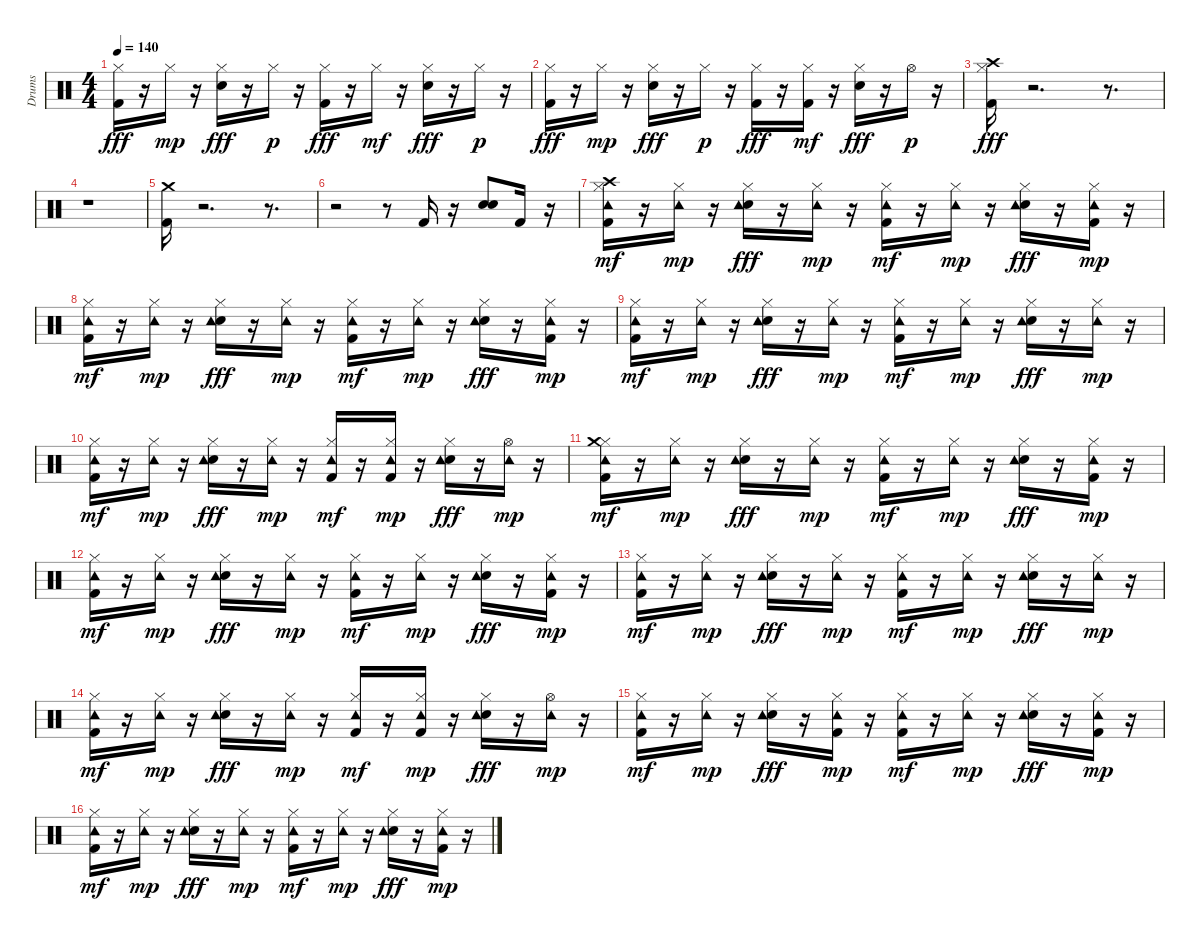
\track ("Drums" "Drums") {instrument percussion}
\staff {score}
\articulation defaults
\ts (4 4)
\tempo 140
\clef neutral
\ks c
("Kick (hit) 2" "Hi-Hat (closed)").16{dy fff} r.16 "Hi-Hat (closed)".16{dy mp} r.16 ("Electric Snare (hit)" "Hi-Hat (closed)").16{dy fff} r.16 "Hi-Hat (closed)".16{dy p} r.16 ("Kick (hit) 2" "Hi-Hat (closed)").16{dy fff} r.16 "Hi-Hat (closed)".16{dy mf} r.16 ("Electric Snare (hit)" "Hi-Hat (closed)").16{dy fff} r.16 "Hi-Hat (closed)".16{dy p} r.16 |
("Kick (hit) 2" "Hi-Hat (closed)").16{dy fff} r.16 "Hi-Hat (closed)".16{dy mp} r.16 ("Electric Snare (hit)" "Hi-Hat (closed)").16{dy fff} r.16 "Hi-Hat (closed)".16{dy p} r.16 ("Kick (hit) 2" "Hi-Hat (closed)").16{dy fff} r.16 ("Kick (hit) 2" "Hi-Hat (closed)").16{dy mf} r.16 ("Electric Snare (hit)" "Hi-Hat (closed)").16{dy fff} r.16 "Hi-Hat (open)".16{dy p} r.16 |
("Kick (hit) 2" "Hi-Hat (closed)" "Crash high (hit)").16{dy fff} r.2{d} r.8{d} |
r.1 |
("Kick (hit) 2" "Crash medium (hit)").16 r.2{d} r.8{d} |
r.2 r.8 "Kick (hit) 2".16 r.16 ("Electric Snare (hit)" "Electric Snare (hit)").8 "Kick (hit) 2".16 r.16 |
("Kick (hit) 2" "Hi-Hat (closed)" "Crash high (hit)" "Tambourine (hit)").16{dy mf} r.16 ("Hi-Hat (closed)" "Tambourine (hit)").16{dy mp} r.16 ("Electric Snare (hit)" "Hi-Hat (closed)" "Tambourine (hit)").16{dy fff} r.16 ("Hi-Hat (closed)" "Tambourine (hit)").16{dy mp} r.16 ("Kick (hit) 2" "Hi-Hat (closed)" "Tambourine (hit)").16{dy mf} r.16 ("Hi-Hat (closed)" "Tambourine (hit)").16{dy mp} r.16 ("Electric Snare (hit)" "Hi-Hat (closed)" "Tambourine (hit)").16{dy fff} r.16 ("Kick (hit) 2" "Hi-Hat (closed)" "Tambourine (hit)").16{dy mp} r.16 |
("Kick (hit) 2" "Hi-Hat (closed)" "Tambourine (hit)").16{dy mf} r.16 ("Hi-Hat (closed)" "Tambourine (hit)").16{dy mp} r.16 ("Electric Snare (hit)" "Hi-Hat (closed)" "Tambourine (hit)").16{dy fff} r.16 ("Hi-Hat (closed)" "Tambourine (hit)").16{dy mp} r.16 ("Kick (hit) 2" "Hi-Hat (closed)" "Tambourine (hit)").16{dy mf} r.16 ("Hi-Hat (closed)" "Tambourine (hit)").16{dy mp} r.16 ("Electric Snare (hit)" "Hi-Hat (closed)" "Tambourine (hit)").16{dy fff} r.16 ("Kick (hit) 2" "Hi-Hat (closed)" "Tambourine (hit)").16{dy mp} r.16 |
("Kick (hit) 2" "Hi-Hat (closed)" "Tambourine (hit)").16{dy mf} r.16 ("Hi-Hat (closed)" "Tambourine (hit)").16{dy mp} r.16 ("Electric Snare (hit)" "Hi-Hat (closed)" "Tambourine (hit)").16{dy fff} r.16 ("Hi-Hat (closed)" "Tambourine (hit)").16{dy mp} r.16 ("Kick (hit) 2" "Hi-Hat (closed)" "Tambourine (hit)").16{dy mf} r.16 ("Hi-Hat (closed)" "Tambourine (hit)").16{dy mp} r.16 ("Electric Snare (hit)" "Hi-Hat (closed)" "Tambourine (hit)").16{dy fff} r.16 ("Hi-Hat (closed)" "Tambourine (hit)").16{dy mp} r.16 |
("Kick (hit) 2" "Hi-Hat (closed)" "Tambourine (hit)").16{dy mf} r.16 ("Hi-Hat (closed)" "Tambourine (hit)").16{dy mp} r.16 ("Electric Snare (hit)" "Hi-Hat (closed)" "Tambourine (hit)").16{dy fff} r.16 ("Hi-Hat (closed)" "Tambourine (hit)").16{dy mp} r.16 ("Kick (hit) 2" "Hi-Hat (closed)" "Tambourine (hit)").16{dy mf} r.16 ("Kick (hit) 2" "Hi-Hat (closed)" "Tambourine (hit)").16{dy mp} r.16 ("Electric Snare (hit)" "Hi-Hat (closed)" "Tambourine (hit)").16{dy fff} r.16 ("Hi-Hat (open)" "Tambourine (hit)").16{dy mp} r.16 |
("Kick (hit) 2" "Hi-Hat (closed)" "Crash medium (hit)" "Tambourine (hit)").16{dy mf} r.16 ("Hi-Hat (closed)" "Tambourine (hit)").16{dy mp} r.16 ("Electric Snare (hit)" "Hi-Hat (closed)" "Tambourine (hit)").16{dy fff} r.16 ("Hi-Hat (closed)" "Tambourine (hit)").16{dy mp} r.16 ("Kick (hit) 2" "Hi-Hat (closed)" "Tambourine (hit)").16{dy mf} r.16 ("Hi-Hat (closed)" "Tambourine (hit)").16{dy mp} r.16 ("Electric Snare (hit)" "Hi-Hat (closed)" "Tambourine (hit)").16{dy fff} r.16 ("Kick (hit) 2" "Hi-Hat (closed)" "Tambourine (hit)").16{dy mp} r.16 |
("Kick (hit) 2" "Hi-Hat (closed)" "Tambourine (hit)").16{dy mf} r.16 ("Hi-Hat (closed)" "Tambourine (hit)").16{dy mp} r.16 ("Electric Snare (hit)" "Hi-Hat (closed)" "Tambourine (hit)").16{dy fff} r.16 ("Hi-Hat (closed)" "Tambourine (hit)").16{dy mp} r.16 ("Kick (hit) 2" "Hi-Hat (closed)" "Tambourine (hit)").16{dy mf} r.16 ("Hi-Hat (closed)" "Tambourine (hit)").16{dy mp} r.16 ("Electric Snare (hit)" "Hi-Hat (closed)" "Tambourine (hit)").16{dy fff} r.16 ("Kick (hit) 2" "Hi-Hat (closed)" "Tambourine (hit)").16{dy mp} r.16 |
("Kick (hit) 2" "Hi-Hat (closed)" "Tambourine (hit)").16{dy mf} r.16 ("Hi-Hat (closed)" "Tambourine (hit)").16{dy mp} r.16 ("Electric Snare (hit)" "Hi-Hat (closed)" "Tambourine (hit)").16{dy fff} r.16 ("Hi-Hat (closed)" "Tambourine (hit)").16{dy mp} r.16 ("Kick (hit) 2" "Hi-Hat (closed)" "Tambourine (hit)").16{dy mf} r.16 ("Hi-Hat (closed)" "Tambourine (hit)").16{dy mp} r.16 ("Electric Snare (hit)" "Hi-Hat (closed)" "Tambourine (hit)").16{dy fff} r.16 ("Hi-Hat (closed)" "Tambourine (hit)").16{dy mp} r.16 |
("Kick (hit) 2" "Hi-Hat (closed)" "Tambourine (hit)").16{dy mf} r.16 ("Hi-Hat (closed)" "Tambourine (hit)").16{dy mp} r.16 ("Electric Snare (hit)" "Hi-Hat (closed)" "Tambourine (hit)").16{dy fff} r.16 ("Hi-Hat (closed)" "Tambourine (hit)").16{dy mp} r.16 ("Kick (hit) 2" "Hi-Hat (closed)" "Tambourine (hit)").16{dy mf} r.16 ("Kick (hit) 2" "Hi-Hat (closed)" "Tambourine (hit)").16{dy mp} r.16 ("Electric Snare (hit)" "Hi-Hat (closed)" "Tambourine (hit)").16{dy fff} r.16 ("Hi-Hat (open)" "Tambourine (hit)").16{dy mp} r.16 |
("Kick (hit) 2" "Hi-Hat (closed)" "Tambourine (hit)").16{dy mf} r.16 ("Hi-Hat (closed)" "Tambourine (hit)").16{dy mp} r.16 ("Electric Snare (hit)" "Hi-Hat (closed)" "Tambourine (hit)").16{dy fff} r.16 ("Kick (hit) 2" "Hi-Hat (closed)" "Tambourine (hit)").16{dy mp} r.16 ("Kick (hit) 2" "Hi-Hat (closed)" "Tambourine (hit)").16{dy mf} r.16 ("Hi-Hat (closed)" "Tambourine (hit)").16{dy mp} r.16 ("Electric Snare (hit)" "Hi-Hat (closed)" "Tambourine (hit)").16{dy fff} r.16 ("Kick (hit) 2" "Hi-Hat (closed)" "Tambourine (hit)").16{dy mp} r.16 |
("Kick (hit) 2" "Hi-Hat (closed)" "Tambourine (hit)").16{dy mf} r.16 ("Hi-Hat (closed)" "Tambourine (hit)").16{dy mp} r.16 ("Electric Snare (hit)" "Hi-Hat (closed)" "Tambourine (hit)").16{dy fff} r.16 ("Hi-Hat (closed)" "Tambourine (hit)").16{dy mp} r.16 ("Kick (hit) 2" "Hi-Hat (closed)" "Tambourine (hit)").16{dy mf} r.16 ("Hi-Hat (closed)" "Tambourine (hit)").16{dy mp} r.16 ("Electric Snare (hit)" "Hi-Hat (closed)" "Tambourine (hit)").16{dy fff} r.16 ("Kick (hit) 2" "Hi-Hat (closed)" "Tambourine (hit)").16{dy mp} r.16
